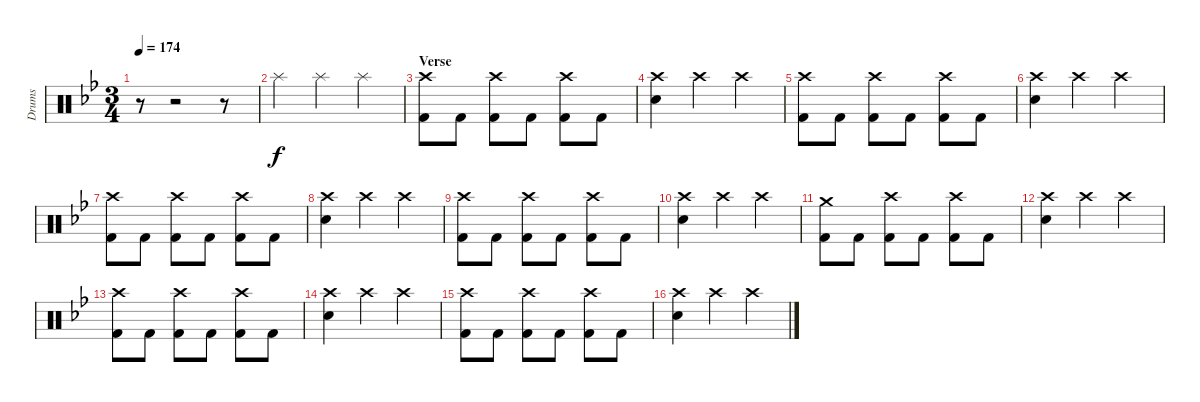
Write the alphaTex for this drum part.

\bracketExtendMode groupsimilarinstruments
\track ("Drumkit" "Drums") {instrument percussion}
\staff {score}
\articulation defaults
\ts (3 4)
\tempo 174
\clef neutral
\ks bb
r.8{dy f} r.2 r.8 |
"Splash (hit)"{acc forcenatural}.4 "Splash (hit)"{acc forcenatural}.4 "Splash (hit)"{acc forcenatural}.4 |
\section ("" "Verse")
("Crash high (hit)"{acc forcenatural} "Kick (hit) 2"{acc forcenatural}).8 "Kick (hit) 2"{acc forcenatural}.8 ("Crash high (hit)"{acc forcenatural} "Kick (hit) 2"{acc forcenatural}).8 "Kick (hit) 2"{acc forcenatural}.8 ("Crash high (hit)"{acc forcenatural} "Kick (hit) 2"{acc forcenatural}).8 "Kick (hit) 2"{acc forcenatural}.8 |
("Crash high (hit)"{acc forcenatural} "Snare (hit) 2"{acc forcenatural}).4 "Crash high (hit)"{acc forcenatural}.4 "Crash high (hit)"{acc forcenatural}.4 |
("Crash high (hit)"{acc forcenatural} "Kick (hit) 2"{acc forcenatural}).8 "Kick (hit) 2"{acc forcenatural}.8 ("Crash high (hit)"{acc forcenatural} "Kick (hit) 2"{acc forcenatural}).8 "Kick (hit) 2"{acc forcenatural}.8 ("Crash high (hit)"{acc forcenatural} "Kick (hit) 2"{acc forcenatural}).8 "Kick (hit) 2"{acc forcenatural}.8 |
("Crash high (hit)"{acc forcenatural} "Snare (hit) 2"{acc forcenatural}).4 "Crash high (hit)"{acc forcenatural}.4 "Crash high (hit)"{acc forcenatural}.4 |
("Crash high (hit)"{acc forcenatural} "Kick (hit) 2"{acc forcenatural}).8 "Kick (hit) 2"{acc forcenatural}.8 ("Crash high (hit)"{acc forcenatural} "Kick (hit) 2"{acc forcenatural}).8 "Kick (hit) 2"{acc forcenatural}.8 ("Crash high (hit)"{acc forcenatural} "Kick (hit) 2"{acc forcenatural}).8 "Kick (hit) 2"{acc forcenatural}.8 |
("Crash high (hit)"{acc forcenatural} "Snare (hit) 2"{acc forcenatural}).4 "Crash high (hit)"{acc forcenatural}.4 "Crash high (hit)"{acc forcenatural}.4 |
("Crash high (hit)"{acc forcenatural} "Kick (hit) 2"{acc forcenatural}).8 "Kick (hit) 2"{acc forcenatural}.8 ("Crash high (hit)"{acc forcenatural} "Kick (hit) 2"{acc forcenatural}).8 "Kick (hit) 2"{acc forcenatural}.8 ("Crash high (hit)"{acc forcenatural} "Kick (hit) 2"{acc forcenatural}).8 "Kick (hit) 2"{acc forcenatural}.8 |
("Crash high (hit)"{acc forcenatural} "Snare (hit) 2"{acc forcenatural}).4 "Crash high (hit)"{acc forcenatural}.4 "Crash high (hit)"{acc forcenatural}.4 |
("Crash medium (hit)"{acc forcenatural} "Kick (hit) 2"{acc forcenatural}).8 "Kick (hit) 2"{acc forcenatural}.8 ("Crash high (hit)"{acc forcenatural} "Kick (hit) 2"{acc forcenatural}).8 "Kick (hit) 2"{acc forcenatural}.8 ("Crash high (hit)"{acc forcenatural} "Kick (hit) 2"{acc forcenatural}).8 "Kick (hit) 2"{acc forcenatural}.8 |
("Crash high (hit)"{acc forcenatural} "Snare (hit) 2"{acc forcenatural}).4 "Crash high (hit)"{acc forcenatural}.4 "Crash high (hit)"{acc forcenatural}.4 |
("Crash high (hit)"{acc forcenatural} "Kick (hit) 2"{acc forcenatural}).8 "Kick (hit) 2"{acc forcenatural}.8 ("Crash high (hit)"{acc forcenatural} "Kick (hit) 2"{acc forcenatural}).8 "Kick (hit) 2"{acc forcenatural}.8 ("Crash high (hit)"{acc forcenatural} "Kick (hit) 2"{acc forcenatural}).8 "Kick (hit) 2"{acc forcenatural}.8 |
("Crash high (hit)"{acc forcenatural} "Snare (hit) 2"{acc forcenatural}).4 "Crash high (hit)"{acc forcenatural}.4 "Crash high (hit)"{acc forcenatural}.4 |
("Crash high (hit)"{acc forcenatural} "Kick (hit) 2"{acc forcenatural}).8 "Kick (hit) 2"{acc forcenatural}.8 ("Crash high (hit)"{acc forcenatural} "Kick (hit) 2"{acc forcenatural}).8 "Kick (hit) 2"{acc forcenatural}.8 ("Crash high (hit)"{acc forcenatural} "Kick (hit) 2"{acc forcenatural}).8 "Kick (hit) 2"{acc forcenatural}.8 |
("Crash high (hit)"{acc forcenatural} "Snare (hit) 2"{acc forcenatural}).4 "Crash high (hit)"{acc forcenatural}.4 "Crash high (hit)"{acc forcenatural}.4
